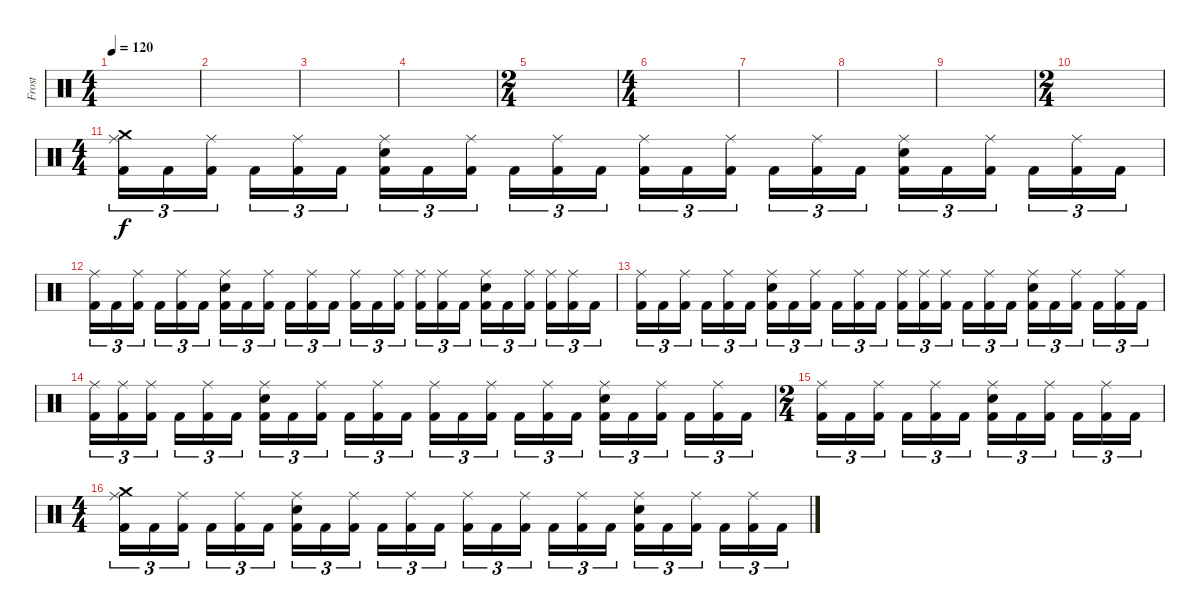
\track ("Frost" "Frost") {instrument percussion}
\staff {score}
\articulation defaults
\ts (4 4)
\tempo 120
\clef neutral
\ks c
|
|
|
|
\ts (2 4)
|
\ts (4 4)
|
|
|
|
\ts (2 4)
|
\ts (4 4)
("Kick (hit) 2" "Crash medium (hit)" "Ride (middle)").16{tu (3 2)} "Kick (hit) 2".16{tu (3 2)} ("Kick (hit) 2" "Ride (middle)").16{tu (3 2)} "Kick (hit) 2".16{tu (3 2)} ("Kick (hit) 2" "Ride (middle)").16{tu (3 2)} "Kick (hit) 2".16{tu (3 2)} ("Kick (hit) 2" "Electric Snare (hit)" "Ride (middle)").16{tu (3 2)} "Kick (hit) 2".16{tu (3 2)} ("Kick (hit) 2" "Ride (middle)").16{tu (3 2)} "Kick (hit) 2".16{tu (3 2)} ("Kick (hit) 2" "Ride (middle)").16{tu (3 2)} "Kick (hit) 2".16{tu (3 2)} ("Kick (hit) 2" "Ride (middle)").16{tu (3 2)} "Kick (hit) 2".16{tu (3 2)} ("Kick (hit) 2" "Ride (middle)").16{tu (3 2)} "Kick (hit) 2".16{tu (3 2)} ("Kick (hit) 2" "Ride (middle)").16{tu (3 2)} "Kick (hit) 2".16{tu (3 2)} ("Kick (hit) 2" "Electric Snare (hit)" "Ride (middle)").16{tu (3 2)} "Kick (hit) 2".16{tu (3 2)} ("Kick (hit) 2" "Ride (middle)").16{tu (3 2)} "Kick (hit) 2".16{tu (3 2)} ("Kick (hit) 2" "Ride (middle)").16{tu (3 2)} "Kick (hit) 2".16{tu (3 2)} |
("Kick (hit) 2" "Ride (middle)").16{tu (3 2)} "Kick (hit) 2".16{tu (3 2)} ("Kick (hit) 2" "Ride (middle)").16{tu (3 2)} "Kick (hit) 2".16{tu (3 2)} ("Kick (hit) 2" "Ride (middle)").16{tu (3 2)} "Kick (hit) 2".16{tu (3 2)} ("Kick (hit) 2" "Electric Snare (hit)" "Ride (middle)").16{tu (3 2)} "Kick (hit) 2".16{tu (3 2)} ("Kick (hit) 2" "Ride (middle)").16{tu (3 2)} "Kick (hit) 2".16{tu (3 2)} ("Kick (hit) 2" "Ride (middle)").16{tu (3 2)} "Kick (hit) 2".16{tu (3 2)} ("Kick (hit) 2" "Ride (middle)").16{tu (3 2)} "Kick (hit) 2".16{tu (3 2)} ("Kick (hit) 2" "Ride (middle)").16{tu (3 2)} ("Kick (hit) 2" "Ride (middle)").16{tu (3 2)} ("Kick (hit) 2" "Ride (middle)").16{tu (3 2)} "Kick (hit) 2".16{tu (3 2)} ("Kick (hit) 2" "Electric Snare (hit)" "Ride (middle)").16{tu (3 2)} "Kick (hit) 2".16{tu (3 2)} ("Kick (hit) 2" "Ride (middle)").16{tu (3 2)} ("Kick (hit) 2" "Ride (middle)").16{tu (3 2)} ("Kick (hit) 2" "Ride (middle)").16{tu (3 2)} "Kick (hit) 2".16{tu (3 2)} |
("Kick (hit) 2" "Ride (middle)").16{tu (3 2)} "Kick (hit) 2".16{tu (3 2)} ("Kick (hit) 2" "Ride (middle)").16{tu (3 2)} "Kick (hit) 2".16{tu (3 2)} ("Kick (hit) 2" "Ride (middle)").16{tu (3 2)} "Kick (hit) 2".16{tu (3 2)} ("Kick (hit) 2" "Electric Snare (hit)" "Ride (middle)").16{tu (3 2)} "Kick (hit) 2".16{tu (3 2)} ("Kick (hit) 2" "Ride (middle)").16{tu (3 2)} "Kick (hit) 2".16{tu (3 2)} ("Kick (hit) 2" "Ride (middle)").16{tu (3 2)} "Kick (hit) 2".16{tu (3 2)} ("Kick (hit) 2" "Ride (middle)").16{tu (3 2)} ("Kick (hit) 2" "Ride (middle)").16{tu (3 2)} ("Kick (hit) 2" "Ride (middle)").16{tu (3 2)} "Kick (hit) 2".16{tu (3 2)} ("Kick (hit) 2" "Ride (middle)").16{tu (3 2)} "Kick (hit) 2".16{tu (3 2)} ("Kick (hit) 2" "Electric Snare (hit)" "Ride (middle)").16{tu (3 2)} "Kick (hit) 2".16{tu (3 2)} ("Kick (hit) 2" "Ride (middle)").16{tu (3 2)} "Kick (hit) 2".16{tu (3 2)} ("Kick (hit) 2" "Ride (middle)").16{tu (3 2)} "Kick (hit) 2".16{tu (3 2)} |
("Kick (hit) 2" "Ride (middle)").16{tu (3 2)} ("Kick (hit) 2" "Ride (middle)").16{tu (3 2)} ("Kick (hit) 2" "Ride (middle)").16{tu (3 2)} "Kick (hit) 2".16{tu (3 2)} ("Kick (hit) 2" "Ride (middle)").16{tu (3 2)} "Kick (hit) 2".16{tu (3 2)} ("Kick (hit) 2" "Electric Snare (hit)" "Ride (middle)").16{tu (3 2)} "Kick (hit) 2".16{tu (3 2)} ("Kick (hit) 2" "Ride (middle)").16{tu (3 2)} "Kick (hit) 2".16{tu (3 2)} ("Kick (hit) 2" "Ride (middle)").16{tu (3 2)} "Kick (hit) 2".16{tu (3 2)} ("Kick (hit) 2" "Ride (middle)").16{tu (3 2)} "Kick (hit) 2".16{tu (3 2)} ("Kick (hit) 2" "Ride (middle)").16{tu (3 2)} "Kick (hit) 2".16{tu (3 2)} ("Kick (hit) 2" "Ride (middle)").16{tu (3 2)} "Kick (hit) 2".16{tu (3 2)} ("Kick (hit) 2" "Electric Snare (hit)" "Ride (middle)").16{tu (3 2)} "Kick (hit) 2".16{tu (3 2)} ("Kick (hit) 2" "Ride (middle)").16{tu (3 2)} "Kick (hit) 2".16{tu (3 2)} ("Kick (hit) 2" "Ride (middle)").16{tu (3 2)} "Kick (hit) 2".16{tu (3 2)} |
\ts (2 4)
("Kick (hit) 2" "Ride (middle)").16{tu (3 2)} "Kick (hit) 2".16{tu (3 2)} ("Kick (hit) 2" "Ride (middle)").16{tu (3 2)} "Kick (hit) 2".16{tu (3 2)} ("Kick (hit) 2" "Ride (middle)").16{tu (3 2)} "Kick (hit) 2".16{tu (3 2)} ("Kick (hit) 2" "Electric Snare (hit)" "Ride (middle)").16{tu (3 2)} "Kick (hit) 2".16{tu (3 2)} ("Kick (hit) 2" "Ride (middle)").16{tu (3 2)} "Kick (hit) 2".16{tu (3 2)} ("Kick (hit) 2" "Ride (middle)").16{tu (3 2)} "Kick (hit) 2".16{tu (3 2)} |
\ts (4 4)
("Kick (hit) 2" "Crash medium (hit)" "Ride (middle)").16{tu (3 2)} "Kick (hit) 2".16{tu (3 2)} ("Kick (hit) 2" "Ride (middle)").16{tu (3 2)} "Kick (hit) 2".16{tu (3 2)} ("Kick (hit) 2" "Ride (middle)").16{tu (3 2)} "Kick (hit) 2".16{tu (3 2)} ("Kick (hit) 2" "Electric Snare (hit)" "Ride (middle)").16{tu (3 2)} "Kick (hit) 2".16{tu (3 2)} ("Kick (hit) 2" "Ride (middle)").16{tu (3 2)} "Kick (hit) 2".16{tu (3 2)} ("Kick (hit) 2" "Ride (middle)").16{tu (3 2)} "Kick (hit) 2".16{tu (3 2)} ("Kick (hit) 2" "Ride (middle)").16{tu (3 2)} "Kick (hit) 2".16{tu (3 2)} ("Kick (hit) 2" "Ride (middle)").16{tu (3 2)} "Kick (hit) 2".16{tu (3 2)} ("Kick (hit) 2" "Ride (middle)").16{tu (3 2)} "Kick (hit) 2".16{tu (3 2)} ("Kick (hit) 2" "Electric Snare (hit)" "Ride (middle)").16{tu (3 2)} "Kick (hit) 2".16{tu (3 2)} ("Kick (hit) 2" "Ride (middle)").16{tu (3 2)} "Kick (hit) 2".16{tu (3 2)} ("Kick (hit) 2" "Ride (middle)").16{tu (3 2)} "Kick (hit) 2".16{tu (3 2)}
